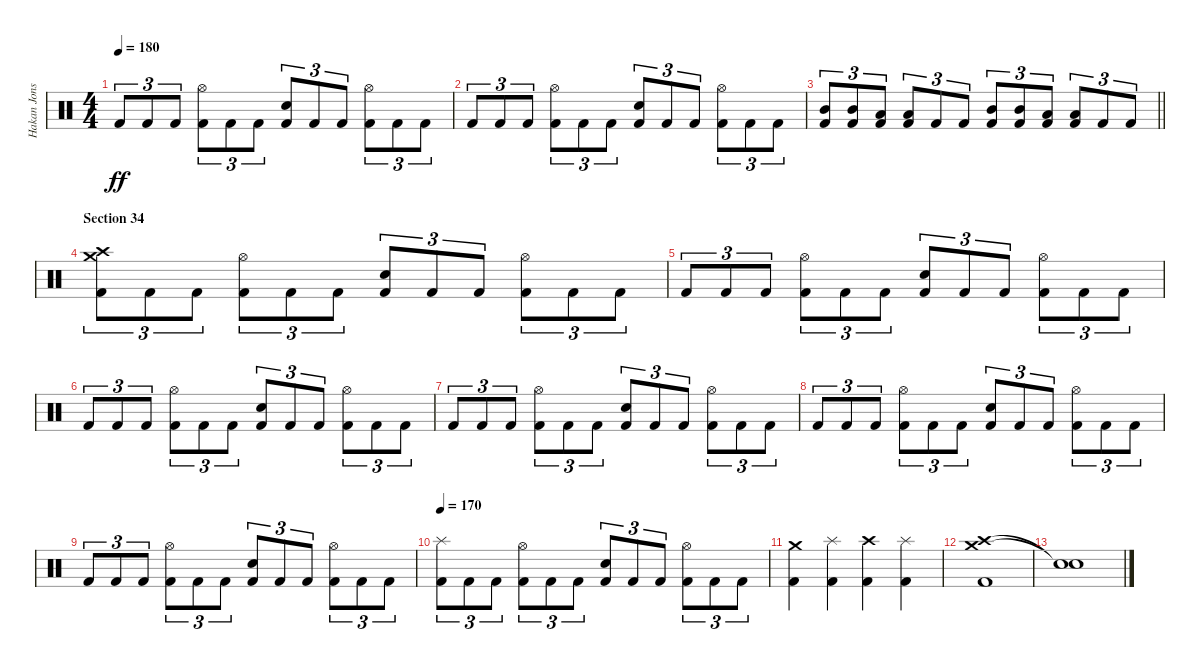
\track ("Hakan Jonsson" "Hakan Jons") {instrument percussion}
\staff {score}
\articulation defaults
\ts (4 4)
\tempo 180
\clef neutral
\ks c "Kick (hit) 2".8{tu (3 2) dy ff} "Kick (hit) 2".8{tu (3 2)} "Kick (hit) 2".8{tu (3 2)}
("Hi-Hat (open)" "Kick (hit) 2").8{tu (3 2)} "Kick (hit) 2".8{tu (3 2)} "Kick (hit) 2".8{tu (3 2)} ("Electric Snare (hit)" "Kick (hit) 2").8{tu (3 2)} "Kick (hit) 2".8{tu (3 2)} "Kick (hit) 2".8{tu (3 2)} ("Hi-Hat (open)" "Kick (hit) 2").8{tu (3 2)} "Kick (hit) 2".8{tu (3 2)} "Kick (hit) 2".8{tu (3 2)} |
"Kick (hit) 2".8{tu (3 2)} "Kick (hit) 2".8{tu (3 2)} "Kick (hit) 2".8{tu (3 2)} ("Hi-Hat (open)" "Kick (hit) 2").8{tu (3 2)} "Kick (hit) 2".8{tu (3 2)} "Kick (hit) 2".8{tu (3 2)} ("Electric Snare (hit)" "Kick (hit) 2").8{tu (3 2)} "Kick (hit) 2".8{tu (3 2)} "Kick (hit) 2".8{tu (3 2)} ("Hi-Hat (open)" "Kick (hit) 2").8{tu (3 2)} "Kick (hit) 2".8{tu (3 2)} "Kick (hit) 2".8{tu (3 2)} |
\barLineRight lightlight
("Mid Tom (hit)" "Kick (hit) 2").8{tu (3 2)} ("Mid Tom (hit)" "Kick (hit) 2").8{tu (3 2)} ("Low Tom (hit)" "Kick (hit) 2").8{tu (3 2)} ("Low Tom (hit)" "Kick (hit) 2").8{tu (3 2)} "Kick (hit) 2".8{tu (3 2)} "Kick (hit) 2".8{tu (3 2)} ("Mid Tom (hit)" "Kick (hit) 2").8{tu (3 2)} ("Mid Tom (hit)" "Kick (hit) 2").8{tu (3 2)} ("Low Tom (hit)" "Kick (hit) 2").8{tu (3 2)} ("Low Tom (hit)" "Kick (hit) 2").8{tu (3 2)} "Kick (hit) 2".8{tu (3 2)} "Kick (hit) 2".8{tu (3 2)} |
\section ("" "Section 34")
("Crash high (hit)" "Crash medium (hit)" "Kick (hit) 2").8{tu (3 2)} "Kick (hit) 2".8{tu (3 2)} "Kick (hit) 2".8{tu (3 2)} ("Hi-Hat (open)" "Kick (hit) 2").8{tu (3 2)} "Kick (hit) 2".8{tu (3 2)} "Kick (hit) 2".8{tu (3 2)} ("Electric Snare (hit)" "Kick (hit) 2").8{tu (3 2)} "Kick (hit) 2".8{tu (3 2)} "Kick (hit) 2".8{tu (3 2)} ("Hi-Hat (open)" "Kick (hit) 2").8{tu (3 2)} "Kick (hit) 2".8{tu (3 2)} "Kick (hit) 2".8{tu (3 2)} |
"Kick (hit) 2".8{tu (3 2)} "Kick (hit) 2".8{tu (3 2)} "Kick (hit) 2".8{tu (3 2)} ("Hi-Hat (open)" "Kick (hit) 2").8{tu (3 2)} "Kick (hit) 2".8{tu (3 2)} "Kick (hit) 2".8{tu (3 2)} ("Electric Snare (hit)" "Kick (hit) 2").8{tu (3 2)} "Kick (hit) 2".8{tu (3 2)} "Kick (hit) 2".8{tu (3 2)} ("Hi-Hat (open)" "Kick (hit) 2").8{tu (3 2)} "Kick (hit) 2".8{tu (3 2)} "Kick (hit) 2".8{tu (3 2)} |
"Kick (hit) 2".8{tu (3 2)} "Kick (hit) 2".8{tu (3 2)} "Kick (hit) 2".8{tu (3 2)} ("Hi-Hat (open)" "Kick (hit) 2").8{tu (3 2)} "Kick (hit) 2".8{tu (3 2)} "Kick (hit) 2".8{tu (3 2)} ("Electric Snare (hit)" "Kick (hit) 2").8{tu (3 2)} "Kick (hit) 2".8{tu (3 2)} "Kick (hit) 2".8{tu (3 2)} ("Hi-Hat (open)" "Kick (hit) 2").8{tu (3 2)} "Kick (hit) 2".8{tu (3 2)} "Kick (hit) 2".8{tu (3 2)} |
"Kick (hit) 2".8{tu (3 2)} "Kick (hit) 2".8{tu (3 2)} "Kick (hit) 2".8{tu (3 2)} ("Hi-Hat (open)" "Kick (hit) 2").8{tu (3 2)} "Kick (hit) 2".8{tu (3 2)} "Kick (hit) 2".8{tu (3 2)} ("Electric Snare (hit)" "Kick (hit) 2").8{tu (3 2)} "Kick (hit) 2".8{tu (3 2)} "Kick (hit) 2".8{tu (3 2)} ("Hi-Hat (open)" "Kick (hit) 2").8{tu (3 2)} "Kick (hit) 2".8{tu (3 2)} "Kick (hit) 2".8{tu (3 2)} |
"Kick (hit) 2".8{tu (3 2)} "Kick (hit) 2".8{tu (3 2)} "Kick (hit) 2".8{tu (3 2)} ("Hi-Hat (open)" "Kick (hit) 2").8{tu (3 2)} "Kick (hit) 2".8{tu (3 2)} "Kick (hit) 2".8{tu (3 2)} ("Electric Snare (hit)" "Kick (hit) 2").8{tu (3 2)} "Kick (hit) 2".8{tu (3 2)} "Kick (hit) 2".8{tu (3 2)} ("Hi-Hat (open)" "Kick (hit) 2").8{tu (3 2)} "Kick (hit) 2".8{tu (3 2)} "Kick (hit) 2".8{tu (3 2)} |
"Kick (hit) 2".8{tu (3 2)} "Kick (hit) 2".8{tu (3 2)} "Kick (hit) 2".8{tu (3 2)} ("Hi-Hat (open)" "Kick (hit) 2").8{tu (3 2)} "Kick (hit) 2".8{tu (3 2)} "Kick (hit) 2".8{tu (3 2)} ("Electric Snare (hit)" "Kick (hit) 2").8{tu (3 2)} "Kick (hit) 2".8{tu (3 2)} "Kick (hit) 2".8{tu (3 2)} ("Hi-Hat (open)" "Kick (hit) 2").8{tu (3 2)} "Kick (hit) 2".8{tu (3 2)} "Kick (hit) 2".8{tu (3 2)} |
\tempo 170
("Splash (hit)" "Kick (hit) 2").8{tu (3 2)} "Kick (hit) 2".8{tu (3 2)} "Kick (hit) 2".8{tu (3 2)} ("Hi-Hat (open)" "Kick (hit) 2").8{tu (3 2)} "Kick (hit) 2".8{tu (3 2)} "Kick (hit) 2".8{tu (3 2)} ("Electric Snare (hit)" "Kick (hit) 2").8{tu (3 2)} "Kick (hit) 2".8{tu (3 2)} "Kick (hit) 2".8{tu (3 2)} ("Hi-Hat (open)" "Kick (hit) 2").8{tu (3 2)} "Kick (hit) 2".8{tu (3 2)} "Kick (hit) 2".8{tu (3 2)} |
("Crash medium (hit)" "Kick (hit) 2").4 ("Splash (hit)" "Kick (hit) 2").4 ("Crash high (hit)" "Kick (hit) 2").4 ("Splash (hit)" "Kick (hit) 2").4 |
("Crash high (hit)" "Crash medium (hit)" "Kick (hit) 2").1 |
("Snare (hit)"{t} "Snare (hit)"{t}).1
